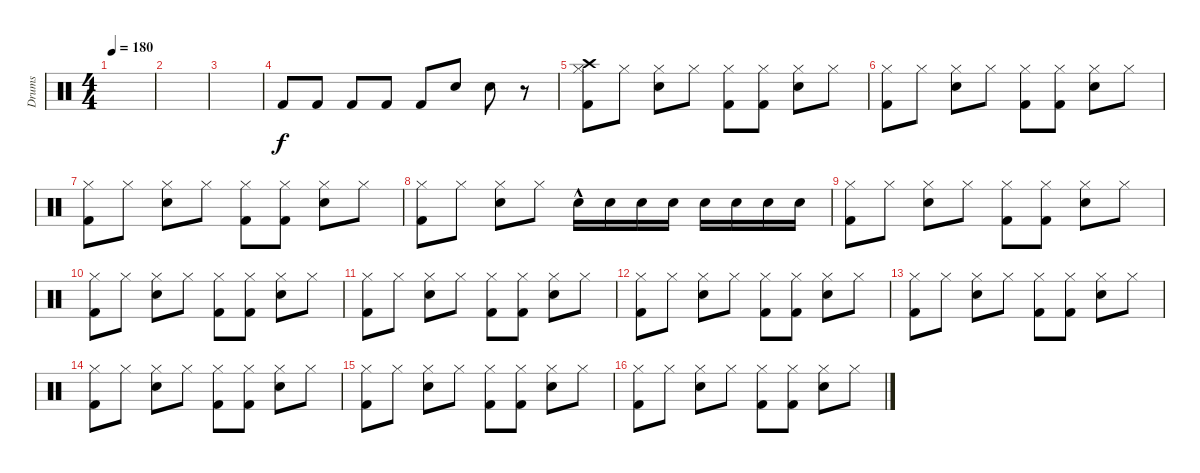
\track ("Drums" "Drums") {instrument percussion}
\staff {score}
\articulation defaults
\ts (4 4)
\tempo 180
\clef neutral
\ks c
|
|
|
"Kick (hit) 2".8 "Kick (hit) 2".8 "Kick (hit) 2".8 "Kick (hit) 2".8 "Kick (hit) 2".8 "Snare (hit) 2".8 "Snare (hit) 2".8 r.8 |
("Crash high (hit)" "Hi-Hat (closed)" "Kick (hit) 2").8 "Hi-Hat (closed)".8 ("Hi-Hat (closed)" "Snare (hit) 2").8 "Hi-Hat (closed)".8 ("Hi-Hat (closed)" "Kick (hit) 2").8 ("Hi-Hat (closed)" "Kick (hit) 2").8 ("Hi-Hat (closed)" "Snare (hit) 2").8 "Hi-Hat (closed)".8 |
("Hi-Hat (closed)" "Kick (hit) 2").8 "Hi-Hat (closed)".8 ("Hi-Hat (closed)" "Snare (hit) 2").8 "Hi-Hat (closed)".8 ("Hi-Hat (closed)" "Kick (hit) 2").8 ("Hi-Hat (closed)" "Kick (hit) 2").8 ("Hi-Hat (closed)" "Snare (hit) 2").8 "Hi-Hat (closed)".8 |
("Hi-Hat (closed)" "Kick (hit) 2").8 "Hi-Hat (closed)".8 ("Hi-Hat (closed)" "Snare (hit) 2").8 "Hi-Hat (closed)".8 ("Hi-Hat (closed)" "Kick (hit) 2").8 ("Hi-Hat (closed)" "Kick (hit) 2").8 ("Hi-Hat (closed)" "Snare (hit) 2").8 "Hi-Hat (closed)".8 |
("Hi-Hat (closed)" "Kick (hit) 2").8 "Hi-Hat (closed)".8 ("Hi-Hat (closed)" "Snare (hit) 2").8 "Hi-Hat (closed)".8 "Snare (hit) 2"{hac}.16 "Snare (hit) 2".16 "Snare (hit) 2".16 "Snare (hit) 2".16 "Snare (hit) 2".16 "Snare (hit) 2".16 "Snare (hit) 2".16 "Snare (hit) 2".16 |
("Hi-Hat (closed)" "Kick (hit) 2").8 "Hi-Hat (closed)".8 ("Hi-Hat (closed)" "Snare (hit) 2").8 "Hi-Hat (closed)".8 ("Hi-Hat (closed)" "Kick (hit) 2").8 ("Hi-Hat (closed)" "Kick (hit) 2").8 ("Hi-Hat (closed)" "Snare (hit) 2").8 "Hi-Hat (closed)".8 |
("Hi-Hat (closed)" "Kick (hit) 2").8 "Hi-Hat (closed)".8 ("Hi-Hat (closed)" "Snare (hit) 2").8 "Hi-Hat (closed)".8 ("Hi-Hat (closed)" "Kick (hit) 2").8 ("Hi-Hat (closed)" "Kick (hit) 2").8 ("Hi-Hat (closed)" "Snare (hit) 2").8 "Hi-Hat (closed)".8 |
("Hi-Hat (closed)" "Kick (hit) 2").8 "Hi-Hat (closed)".8 ("Hi-Hat (closed)" "Snare (hit) 2").8 "Hi-Hat (closed)".8 ("Hi-Hat (closed)" "Kick (hit) 2").8 ("Hi-Hat (closed)" "Kick (hit) 2").8 ("Hi-Hat (closed)" "Snare (hit) 2").8 "Hi-Hat (closed)".8 |
("Hi-Hat (closed)" "Kick (hit) 2").8 "Hi-Hat (closed)".8 ("Hi-Hat (closed)" "Snare (hit) 2").8 "Hi-Hat (closed)".8 ("Hi-Hat (closed)" "Kick (hit) 2").8 ("Hi-Hat (closed)" "Kick (hit) 2").8 ("Hi-Hat (closed)" "Snare (hit) 2").8 "Hi-Hat (closed)".8 |
("Hi-Hat (closed)" "Kick (hit) 2").8 "Hi-Hat (closed)".8 ("Hi-Hat (closed)" "Snare (hit) 2").8 "Hi-Hat (closed)".8 ("Hi-Hat (closed)" "Kick (hit) 2").8 ("Hi-Hat (closed)" "Kick (hit) 2").8 ("Hi-Hat (closed)" "Snare (hit) 2").8 "Hi-Hat (closed)".8 |
("Hi-Hat (closed)" "Kick (hit) 2").8 "Hi-Hat (closed)".8 ("Hi-Hat (closed)" "Snare (hit) 2").8 "Hi-Hat (closed)".8 ("Hi-Hat (closed)" "Kick (hit) 2").8 ("Hi-Hat (closed)" "Kick (hit) 2").8 ("Hi-Hat (closed)" "Snare (hit) 2").8 "Hi-Hat (closed)".8 |
("Hi-Hat (closed)" "Kick (hit) 2").8 "Hi-Hat (closed)".8 ("Hi-Hat (closed)" "Snare (hit) 2").8 "Hi-Hat (closed)".8 ("Hi-Hat (closed)" "Kick (hit) 2").8 ("Hi-Hat (closed)" "Kick (hit) 2").8 ("Hi-Hat (closed)" "Snare (hit) 2").8 "Hi-Hat (closed)".8 |
("Hi-Hat (closed)" "Kick (hit) 2").8 "Hi-Hat (closed)".8 ("Hi-Hat (closed)" "Snare (hit) 2").8 "Hi-Hat (closed)".8 ("Hi-Hat (closed)" "Kick (hit) 2").8 ("Hi-Hat (closed)" "Kick (hit) 2").8 ("Hi-Hat (closed)" "Snare (hit) 2").8 "Hi-Hat (closed)".8
